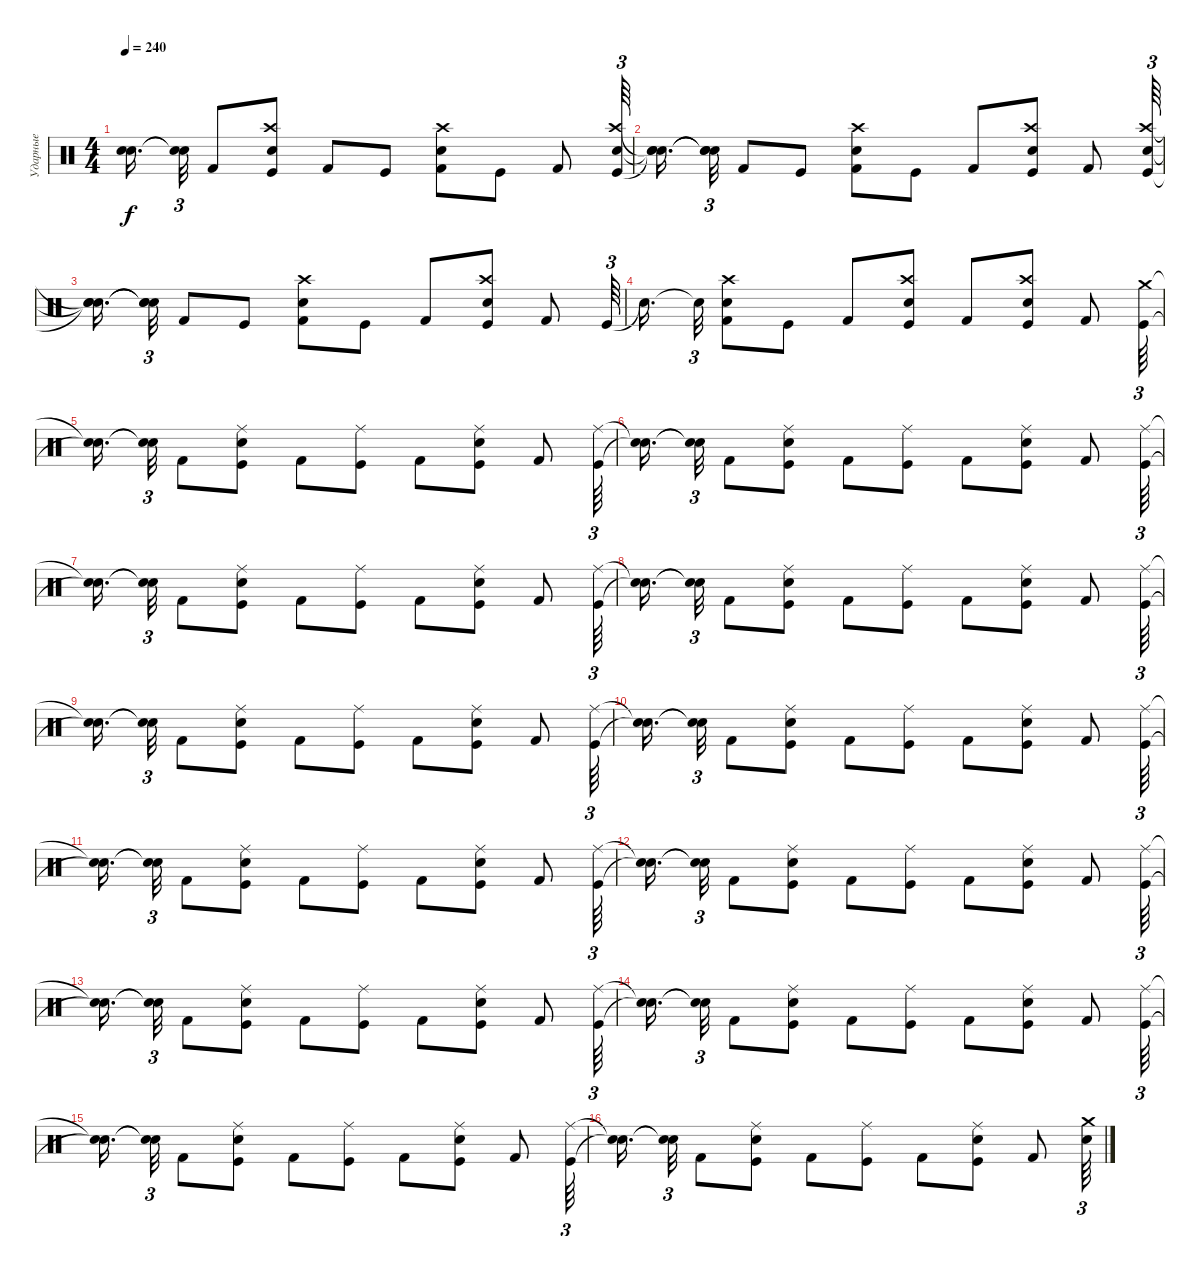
\track ("Ударные" "Ударные") {instrument percussion}
\staff {score}
\articulation defaults
\ts (4 4)
\tempo 240
\clef neutral
\ks c
("Snare (hit)"{t} "Snare (hit)"{t}).16{d dy f} ("Snare (hit)"{t} "Snare (hit)"{t}).32{tu (3 2)} "Kick (hit) 2".8 ("Crash high (hit)" "Kick (hit)" "Snare (hit) 2").8 "Kick (hit) 2".8 "Kick (hit)".8 ("Snare (hit) 2" "Crash high (hit)" "Kick (hit) 2").8 "Kick (hit)".8 "Kick (hit) 2".8 ("Crash high (hit)" "Kick (hit)" "Snare (hit) 2").64{tu (3 2)} |
("Snare (hit)"{t} "Snare (hit)"{t} "Snare (hit)"{t}).16{d} ("Snare (hit)"{t} "Snare (hit)"{t} "Snare (hit)"{t}).32{tu (3 2)} "Kick (hit) 2".8 "Kick (hit)".8 ("Snare (hit) 2" "Crash high (hit)" "Kick (hit) 2").8 "Kick (hit)".8 "Kick (hit) 2".8 ("Crash high (hit)" "Kick (hit)" "Snare (hit) 2").8 "Kick (hit) 2".8 ("Snare (hit) 2" "Crash high (hit)" "Kick (hit)").64{tu (3 2)} |
("Snare (hit)"{t} "Snare (hit)"{t} "Snare (hit)"{t}).16{d} ("Snare (hit)"{t} "Snare (hit)"{t} "Snare (hit)"{t}).32{tu (3 2)} "Kick (hit) 2".8 "Kick (hit)".8 ("Kick (hit) 2" "Crash high (hit)" "Snare (hit) 2").8 "Kick (hit)".8 "Kick (hit) 2".8 ("Crash high (hit)" "Kick (hit)" "Snare (hit) 2").8 "Kick (hit) 2".8 "Kick (hit)".64{tu (3 2)} |
"Snare (hit)"{t}.16{d} "Snare (hit)"{t}.32{tu (3 2)} ("Kick (hit) 2" "Crash high (hit)" "Snare (hit) 2").8 "Kick (hit)".8 "Kick (hit) 2".8 ("Crash high (hit)" "Kick (hit)" "Snare (hit) 2").8 "Kick (hit) 2".8 ("Snare (hit) 2" "Crash high (hit)" "Kick (hit)").8 "Kick (hit) 2".8 ("Kick (hit)" "Crash medium (hit)").64{tu (3 2)} |
("Snare (hit)"{t} "Snare (hit)"{t}).16{d} ("Snare (hit)"{t} "Snare (hit)"{t}).32{tu (3 2)} "Kick (hit) 2".8 ("Snare (hit) 2" "Kick (hit)" "Ride (middle)").8 "Kick (hit) 2".8 ("Ride (middle)" "Kick (hit)").8 "Kick (hit) 2".8 ("Kick (hit)" "Ride (middle)" "Snare (hit) 2").8 "Kick (hit) 2".8 ("Kick (hit)" "Ride (middle)").64{tu (3 2)} |
("Snare (hit)"{t} "Snare (hit)"{t}).16{d} ("Snare (hit)"{t} "Snare (hit)"{t}).32{tu (3 2)} "Kick (hit) 2".8 ("Kick (hit)" "Snare (hit) 2" "Ride (middle)").8 "Kick (hit) 2".8 ("Kick (hit)" "Ride (middle)").8 "Kick (hit) 2".8 ("Snare (hit) 2" "Ride (middle)" "Kick (hit)").8 "Kick (hit) 2".8 ("Kick (hit)" "Ride (middle)").64{tu (3 2)} |
("Snare (hit)"{t} "Snare (hit)"{t}).16{d} ("Snare (hit)"{t} "Snare (hit)"{t}).32{tu (3 2)} "Kick (hit) 2".8 ("Kick (hit)" "Ride (middle)" "Snare (hit) 2").8 "Kick (hit) 2".8 ("Kick (hit)" "Ride (middle)").8 "Kick (hit) 2".8 ("Snare (hit) 2" "Kick (hit)" "Ride (middle)").8 "Kick (hit) 2".8 ("Kick (hit)" "Ride (middle)").64{tu (3 2)} |
("Snare (hit)"{t} "Snare (hit)"{t}).16{d} ("Snare (hit)"{t} "Snare (hit)"{t}).32{tu (3 2)} "Kick (hit) 2".8 ("Kick (hit)" "Snare (hit) 2" "Ride (middle)").8 "Kick (hit) 2".8 ("Ride (middle)" "Kick (hit)").8 "Kick (hit) 2".8 ("Kick (hit)" "Snare (hit) 2" "Ride (middle)").8 "Kick (hit) 2".8 ("Ride (middle)" "Kick (hit)").64{tu (3 2)} |
("Snare (hit)"{t} "Snare (hit)"{t}).16{d} ("Snare (hit)"{t} "Snare (hit)"{t}).32{tu (3 2)} "Kick (hit) 2".8 ("Snare (hit) 2" "Kick (hit)" "Ride (middle)").8 "Kick (hit) 2".8 ("Ride (middle)" "Kick (hit)").8 "Kick (hit) 2".8 ("Ride (middle)" "Kick (hit)" "Snare (hit) 2").8 "Kick (hit) 2".8 ("Kick (hit)" "Ride (middle)").64{tu (3 2)} |
("Snare (hit)"{t} "Snare (hit)"{t}).16{d} ("Snare (hit)"{t} "Snare (hit)"{t}).32{tu (3 2)} "Kick (hit) 2".8 ("Kick (hit)" "Snare (hit) 2" "Ride (middle)").8 "Kick (hit) 2".8 ("Ride (middle)" "Kick (hit)").8 "Kick (hit) 2".8 ("Ride (middle)" "Kick (hit)" "Snare (hit) 2").8 "Kick (hit) 2".8 ("Kick (hit)" "Ride (middle)").64{tu (3 2)} |
("Snare (hit)"{t} "Snare (hit)"{t}).16{d} ("Snare (hit)"{t} "Snare (hit)"{t}).32{tu (3 2)} "Kick (hit) 2".8 ("Ride (middle)" "Snare (hit) 2" "Kick (hit)").8 "Kick (hit) 2".8 ("Ride (middle)" "Kick (hit)").8 "Kick (hit) 2".8 ("Kick (hit)" "Snare (hit) 2" "Ride (middle)").8 "Kick (hit) 2".8 ("Ride (middle)" "Kick (hit)").64{tu (3 2)} |
("Snare (hit)"{t} "Snare (hit)"{t}).16{d} ("Snare (hit)"{t} "Snare (hit)"{t}).32{tu (3 2)} "Kick (hit) 2".8 ("Kick (hit)" "Snare (hit) 2" "Ride (middle)").8 "Kick (hit) 2".8 ("Ride (middle)" "Kick (hit)").8 "Kick (hit) 2".8 ("Snare (hit) 2" "Ride (middle)" "Kick (hit)").8 "Kick (hit) 2".8 ("Ride (middle)" "Kick (hit)").64{tu (3 2)} |
("Snare (hit)"{t} "Snare (hit)"{t}).16{d} ("Snare (hit)"{t} "Snare (hit)"{t}).32{tu (3 2)} "Kick (hit) 2".8 ("Ride (middle)" "Snare (hit) 2" "Kick (hit)").8 "Kick (hit) 2".8 ("Kick (hit)" "Ride (middle)").8 "Kick (hit) 2".8 ("Ride (middle)" "Kick (hit)" "Snare (hit) 2").8 "Kick (hit) 2".8 ("Ride (middle)" "Kick (hit)").64{tu (3 2)} |
("Snare (hit)"{t} "Snare (hit)"{t}).16{d} ("Snare (hit)"{t} "Snare (hit)"{t}).32{tu (3 2)} "Kick (hit) 2".8 ("Ride (middle)" "Kick (hit)" "Snare (hit) 2").8 "Kick (hit) 2".8 ("Ride (middle)" "Kick (hit)").8 "Kick (hit) 2".8 ("Ride (middle)" "Kick (hit)" "Snare (hit) 2").8 "Kick (hit) 2".8 ("Kick (hit)" "Ride (middle)").64{tu (3 2)} |
("Snare (hit)"{t} "Snare (hit)"{t}).16{d} ("Snare (hit)"{t} "Snare (hit)"{t}).32{tu (3 2)} "Kick (hit) 2".8 ("Ride (middle)" "Kick (hit)" "Snare (hit) 2").8 "Kick (hit) 2".8 ("Ride (middle)" "Kick (hit)").8 "Kick (hit) 2".8 ("Kick (hit)" "Snare (hit) 2" "Ride (middle)").8 "Kick (hit) 2".8 ("Ride (middle)" "Kick (hit)").64{tu (3 2)} |
("Snare (hit)"{t} "Snare (hit)"{t}).16{d} ("Snare (hit)"{t} "Snare (hit)"{t}).32{tu (3 2)} "Kick (hit) 2".8 ("Snare (hit) 2" "Kick (hit)" "Ride (middle)").8 "Kick (hit) 2".8 ("Kick (hit)" "Ride (middle)").8 "Kick (hit) 2".8 ("Snare (hit) 2" "Ride (middle)" "Kick (hit)").8 "Kick (hit) 2".8 ("Snare (hit) 2" "Crash medium (hit)").64{tu (3 2)}
